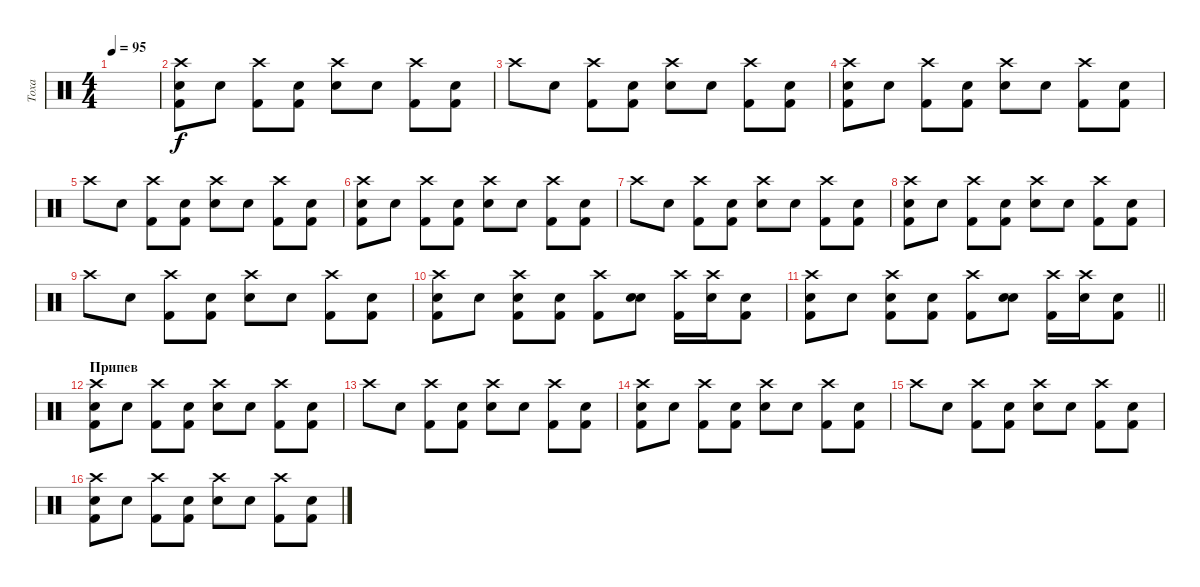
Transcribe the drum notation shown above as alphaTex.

\track ("Toxa" "Toxa") {instrument percussion}
\staff {score}
\articulation defaults
\ts (4 4)
\tempo 95
\clef neutral
\ks c
|
("Crash high (hit)" "Kick (hit) 2" "Snare (hit) 2").8 "Snare (hit)".8 ("Crash high (hit)" "Kick (hit) 2").8 ("Snare (hit)" "Kick (hit) 2").8 ("Crash high (hit)" "Electric Snare (hit)").8 "Snare (hit)".8 ("Crash high (hit)" "Kick (hit) 2").8 ("Snare (hit)" "Kick (hit) 2").8 |
"Crash high (hit)".8 "Snare (hit)".8 ("Crash high (hit)" "Kick (hit) 2").8 ("Snare (hit)" "Kick (hit) 2").8 ("Crash high (hit)" "Electric Snare (hit)").8 "Snare (hit)".8 ("Crash high (hit)" "Kick (hit) 2").8 ("Snare (hit)" "Kick (hit) 2").8 |
("Crash high (hit)" "Kick (hit) 2" "Snare (hit) 2").8 "Snare (hit)".8 ("Crash high (hit)" "Kick (hit) 2").8 ("Snare (hit)" "Kick (hit) 2").8 ("Crash high (hit)" "Electric Snare (hit)").8 "Snare (hit)".8 ("Crash high (hit)" "Kick (hit) 2").8 ("Snare (hit)" "Kick (hit) 2").8 |
"Crash high (hit)".8 "Snare (hit)".8 ("Crash high (hit)" "Kick (hit) 2").8 ("Snare (hit)" "Kick (hit) 2").8 ("Crash high (hit)" "Electric Snare (hit)").8 "Snare (hit)".8 ("Crash high (hit)" "Kick (hit) 2").8 ("Snare (hit)" "Kick (hit) 2").8 |
("Crash high (hit)" "Kick (hit) 2" "Snare (hit) 2").8 "Snare (hit)".8 ("Crash high (hit)" "Kick (hit) 2").8 ("Snare (hit)" "Kick (hit) 2").8 ("Crash high (hit)" "Electric Snare (hit)").8 "Snare (hit)".8 ("Crash high (hit)" "Kick (hit) 2").8 ("Snare (hit)" "Kick (hit) 2").8 |
"Crash high (hit)".8 "Snare (hit)".8 ("Crash high (hit)" "Kick (hit) 2").8 ("Snare (hit)" "Kick (hit) 2").8 ("Crash high (hit)" "Electric Snare (hit)").8 "Snare (hit)".8 ("Crash high (hit)" "Kick (hit) 2").8 ("Snare (hit)" "Kick (hit) 2").8 |
("Crash high (hit)" "Kick (hit) 2" "Snare (hit) 2").8 "Snare (hit)".8 ("Crash high (hit)" "Kick (hit) 2").8 ("Snare (hit)" "Kick (hit) 2").8 ("Crash high (hit)" "Electric Snare (hit)").8 "Snare (hit)".8 ("Crash high (hit)" "Kick (hit) 2").8 ("Snare (hit)" "Kick (hit) 2").8 |
"Crash high (hit)".8 "Snare (hit)".8 ("Crash high (hit)" "Kick (hit) 2").8 ("Snare (hit)" "Kick (hit) 2").8 ("Crash high (hit)" "Electric Snare (hit)").8 "Snare (hit)".8 ("Crash high (hit)" "Kick (hit) 2").8 ("Snare (hit)" "Kick (hit) 2").8 |
("Crash high (hit)" "Kick (hit) 2" "Snare (hit) 2").8 "Snare (hit)".8 ("Crash high (hit)" "Kick (hit) 2" "Snare (hit) 2").8 ("Snare (hit)" "Kick (hit) 2").8 ("Crash high (hit)" "Kick (hit) 2").8 ("Snare (hit)" "Electric Snare (hit)").8 ("Crash high (hit)" "Kick (hit) 2").16 ("Crash high (hit)" "Electric Snare (hit)").16 ("Snare (hit)" "Kick (hit) 2").8 |
\barLineRight lightlight
("Crash high (hit)" "Kick (hit) 2" "Snare (hit) 2").8 "Snare (hit)".8 ("Crash high (hit)" "Kick (hit) 2" "Snare (hit) 2").8 ("Snare (hit)" "Kick (hit) 2").8 ("Crash high (hit)" "Kick (hit) 2").8 ("Snare (hit)" "Electric Snare (hit)").8 ("Crash high (hit)" "Kick (hit) 2").16 ("Crash high (hit)" "Electric Snare (hit)").16 ("Snare (hit)" "Kick (hit) 2").8 |
\section ("" "Припев")
("Crash high (hit)" "Kick (hit) 2" "Snare (hit) 2").8 "Snare (hit)".8 ("Crash high (hit)" "Kick (hit) 2").8 ("Snare (hit)" "Kick (hit) 2").8 ("Crash high (hit)" "Electric Snare (hit)").8 "Snare (hit)".8 ("Crash high (hit)" "Kick (hit) 2").8 ("Snare (hit)" "Kick (hit) 2").8 |
"Crash high (hit)".8 "Snare (hit)".8 ("Crash high (hit)" "Kick (hit) 2").8 ("Snare (hit)" "Kick (hit) 2").8 ("Crash high (hit)" "Electric Snare (hit)").8 "Snare (hit)".8 ("Crash high (hit)" "Kick (hit) 2").8 ("Snare (hit)" "Kick (hit) 2").8 |
("Crash high (hit)" "Kick (hit) 2" "Snare (hit) 2").8 "Snare (hit)".8 ("Crash high (hit)" "Kick (hit) 2").8 ("Snare (hit)" "Kick (hit) 2").8 ("Crash high (hit)" "Electric Snare (hit)").8 "Snare (hit)".8 ("Crash high (hit)" "Kick (hit) 2").8 ("Snare (hit)" "Kick (hit) 2").8 |
"Crash high (hit)".8 "Snare (hit)".8 ("Crash high (hit)" "Kick (hit) 2").8 ("Snare (hit)" "Kick (hit) 2").8 ("Crash high (hit)" "Electric Snare (hit)").8 "Snare (hit)".8 ("Crash high (hit)" "Kick (hit) 2").8 ("Snare (hit)" "Kick (hit) 2").8 |
("Crash high (hit)" "Kick (hit) 2" "Snare (hit) 2").8 "Snare (hit)".8 ("Crash high (hit)" "Kick (hit) 2").8 ("Snare (hit)" "Kick (hit) 2").8 ("Crash high (hit)" "Electric Snare (hit)").8 "Snare (hit)".8 ("Crash high (hit)" "Kick (hit) 2").8 ("Snare (hit)" "Kick (hit) 2").8
